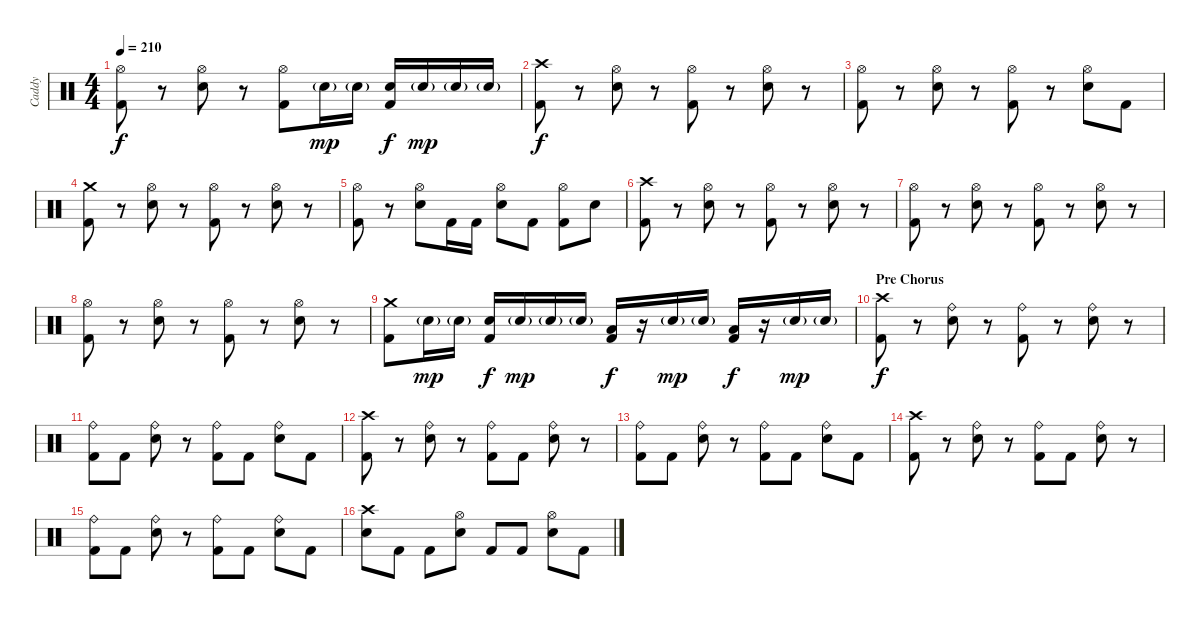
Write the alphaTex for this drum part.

\track ("Caddy" "Caddy") {instrument percussion}
\staff {score}
\articulation defaults
\ts (4 4)
\tempo 210
\clef neutral
\ks c
("Hi-Hat (open)" "Kick (hit) 2").8{dy f} r.8 ("Hi-Hat (open)" "Electric Snare (hit)").8 r.8 ("Hi-Hat (open)" "Kick (hit) 2").8 "Electric Snare (hit)"{g}.16{dy mp} "Electric Snare (hit)"{g}.16 ("Electric Snare (hit)" "Kick (hit) 2").16{dy f} "Electric Snare (hit)"{g}.16{dy mp} "Electric Snare (hit)"{g}.16 "Electric Snare (hit)"{g}.16 |
("Crash high (hit)" "Kick (hit) 2").8{dy f} r.8 ("Hi-Hat (open)" "Electric Snare (hit)").8 r.8 ("Hi-Hat (open)" "Kick (hit) 2").8 r.8 ("Hi-Hat (open)" "Electric Snare (hit)").8 r.8 |
("Hi-Hat (open)" "Kick (hit) 2").8 r.8 ("Hi-Hat (open)" "Electric Snare (hit)").8 r.8 ("Hi-Hat (open)" "Kick (hit) 2").8 r.8 ("Hi-Hat (open)" "Electric Snare (hit)").8 "Kick (hit) 2".8 |
("Crash medium (hit)" "Kick (hit) 2").8 r.8 ("Hi-Hat (open)" "Electric Snare (hit)").8 r.8 ("Hi-Hat (open)" "Kick (hit) 2").8 r.8 ("Hi-Hat (open)" "Electric Snare (hit)").8 r.8 |
("Hi-Hat (open)" "Kick (hit) 2").8 r.8 ("Hi-Hat (open)" "Electric Snare (hit)").8 "Kick (hit) 2".16 "Kick (hit) 2".16 ("Hi-Hat (open)" "Electric Snare (hit)").8 "Kick (hit) 2".8 ("Hi-Hat (open)" "Kick (hit) 2").8 "Electric Snare (hit)".8 |
("Crash high (hit)" "Kick (hit) 2").8 r.8 ("Hi-Hat (open)" "Electric Snare (hit)").8 r.8 ("Hi-Hat (open)" "Kick (hit) 2").8 r.8 ("Hi-Hat (open)" "Electric Snare (hit)").8 r.8 |
("Hi-Hat (open)" "Kick (hit) 2").8 r.8 ("Hi-Hat (open)" "Electric Snare (hit)").8 r.8 ("Hi-Hat (open)" "Kick (hit) 2").8 r.8 ("Hi-Hat (open)" "Electric Snare (hit)").8 r.8 |
("Hi-Hat (open)" "Kick (hit) 2").8 r.8 ("Hi-Hat (open)" "Electric Snare (hit)").8 r.8 ("Hi-Hat (open)" "Kick (hit) 2").8 r.8 ("Hi-Hat (open)" "Electric Snare (hit)").8 r.8 |
("Crash medium (hit)" "Kick (hit) 2").8 "Electric Snare (hit)"{g}.16{dy mp} "Electric Snare (hit)"{g}.16 ("Electric Snare (hit)" "Kick (hit) 2").16{dy f} "Electric Snare (hit)"{g}.16{dy mp} "Electric Snare (hit)"{g}.16 "Electric Snare (hit)"{g}.16 ("Low Floor Tom (hit)" "Kick (hit) 2").16{dy f} r.16 "Electric Snare (hit)"{g}.16{dy mp} "Electric Snare (hit)"{g}.16 ("Low Floor Tom (hit)" "Kick (hit) 2").16{dy f} r.16 "Electric Snare (hit)"{g}.16{dy mp} "Electric Snare (hit)"{g}.16 |
\section ("" "Pre Chorus")
("Crash high (hit)" "Kick (hit) 2").8{dy f} r.8 ("Ride (bell)" "Electric Snare (hit)").8 r.8 ("Ride (bell)" "Kick (hit) 2").8 r.8 ("Ride (bell)" "Electric Snare (hit)").8 r.8 |
("Ride (bell)" "Kick (hit) 2").8 "Kick (hit) 2".8 ("Ride (bell)" "Electric Snare (hit)").8 r.8 ("Ride (bell)" "Kick (hit) 2").8 "Kick (hit) 2".8 ("Ride (bell)" "Electric Snare (hit)").8 "Kick (hit) 2".8 |
("Crash high (hit)" "Kick (hit) 2").8 r.8 ("Ride (bell)" "Electric Snare (hit)").8 r.8 ("Ride (bell)" "Kick (hit) 2").8 "Kick (hit) 2".8 ("Ride (bell)" "Electric Snare (hit)").8 r.8 |
("Ride (bell)" "Kick (hit) 2").8 "Kick (hit) 2".8 ("Ride (bell)" "Electric Snare (hit)").8 r.8 ("Ride (bell)" "Kick (hit) 2").8 "Kick (hit) 2".8 ("Ride (bell)" "Electric Snare (hit)").8 "Kick (hit) 2".8 |
("Crash high (hit)" "Kick (hit) 2").8 r.8 ("Ride (bell)" "Electric Snare (hit)").8 r.8 ("Ride (bell)" "Kick (hit) 2").8 "Kick (hit) 2".8 ("Ride (bell)" "Electric Snare (hit)").8 r.8 |
("Ride (bell)" "Kick (hit) 2").8 "Kick (hit) 2".8 ("Ride (bell)" "Electric Snare (hit)").8 r.8 ("Ride (bell)" "Kick (hit) 2").8 "Kick (hit) 2".8 ("Ride (bell)" "Electric Snare (hit)").8 "Kick (hit) 2".8 |
("Crash high (hit)" "Electric Snare (hit)").8 "Kick (hit) 2".8 "Kick (hit) 2".8 ("Hi-Hat (open)" "Electric Snare (hit)").8 "Kick (hit) 2".8 "Kick (hit) 2".8 ("Hi-Hat (open)" "Electric Snare (hit)").8 "Kick (hit) 2".8
